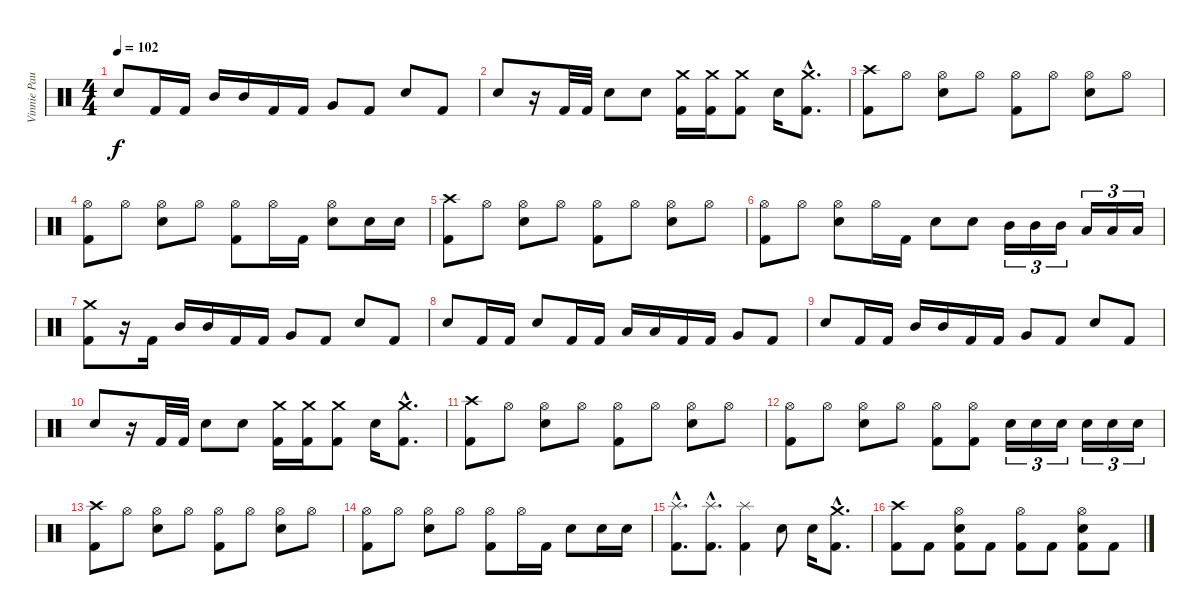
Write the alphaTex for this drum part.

\track ("Vinnie Paul" "Vinnie Pau") {instrument percussion}
\staff {score}
\articulation defaults
\ts (4 4)
\tempo 102
\clef neutral
\ks c "Snare (hit) 2".8{dy f} "Kick (hit) 2".16 "Kick (hit) 2".16 "Mid Tom (hit)".16 "Mid Tom (hit)".16 "Kick (hit) 2".16 "Kick (hit) 2".16 "Very Low Tom (hit)".8 "Kick (hit) 2".8 "Snare (hit) 2".8 "Kick (hit) 2".8
|
"Snare (hit) 2".8 r.16 "Kick (hit) 2".32 "Kick (hit) 2".32 "Snare (hit) 2".8 "Snare (hit) 2".8 ("Crash medium (hit)" "Kick (hit) 2").16 ("Crash medium (hit)" "Kick (hit) 2").16 ("Crash medium (hit)" "Kick (hit) 2").8 "Snare (hit) 2".16 ("Crash medium (hit)"{hac} "Kick (hit) 2"{hac}).8{d} |
("Crash high (hit)" "Kick (hit) 2").8 "Hi-Hat (open)".8 ("Hi-Hat (open)" "Snare (hit) 2").8 "Hi-Hat (open)".8 ("Hi-Hat (open)" "Kick (hit) 2").8 "Hi-Hat (open)".8 ("Hi-Hat (open)" "Snare (hit) 2").8 "Hi-Hat (open)".8 |
("Hi-Hat (open)" "Kick (hit) 2").8 "Hi-Hat (open)".8 ("Hi-Hat (open)" "Snare (hit) 2").8 "Hi-Hat (open)".8 ("Hi-Hat (open)" "Kick (hit) 2").8 "Hi-Hat (open)".16 "Kick (hit) 2".16 ("Hi-Hat (open)" "Snare (hit) 2").8 "Snare (hit) 2".16 "Snare (hit) 2".16 |
("Crash high (hit)" "Kick (hit) 2").8 "Hi-Hat (open)".8 ("Hi-Hat (open)" "Snare (hit) 2").8 "Hi-Hat (open)".8 ("Hi-Hat (open)" "Kick (hit) 2").8 "Hi-Hat (open)".8 ("Hi-Hat (open)" "Snare (hit) 2").8 "Hi-Hat (open)".8 |
("Hi-Hat (open)" "Kick (hit) 2").8 "Hi-Hat (open)".8 ("Hi-Hat (open)" "Snare (hit) 2").8 "Hi-Hat (open)".16 "Kick (hit) 2".16 "Snare (hit) 2".8 "Snare (hit) 2".8 "Mid Tom (hit)".16{tu (3 2)} "Mid Tom (hit)".16{tu (3 2)} "Mid Tom (hit)".16{tu (3 2)} "Low Tom (hit)".16{tu (3 2)} "Low Tom (hit)".16{tu (3 2)} "Low Tom (hit)".16{tu (3 2)} |
("Crash medium (hit)" "Kick (hit) 2").8 r.16 "Kick (hit) 2".16 "Mid Tom (hit)".16 "Mid Tom (hit)".16 "Kick (hit) 2".16 "Kick (hit) 2".16 "Very Low Tom (hit)".8 "Kick (hit) 2".8 "Snare (hit) 2".8 "Kick (hit) 2".8 |
"Snare (hit) 2".8 "Kick (hit) 2".16 "Kick (hit) 2".16 "Snare (hit) 2".8 "Kick (hit) 2".16 "Kick (hit) 2".16 "Low Tom (hit)".16 "Low Tom (hit)".16 "Kick (hit) 2".16 "Kick (hit) 2".16 "Very Low Tom (hit)".8 "Kick (hit) 2".8 |
"Snare (hit) 2".8 "Kick (hit) 2".16 "Kick (hit) 2".16 "Mid Tom (hit)".16 "Mid Tom (hit)".16 "Kick (hit) 2".16 "Kick (hit) 2".16 "Very Low Tom (hit)".8 "Kick (hit) 2".8 "Snare (hit) 2".8 "Kick (hit) 2".8 |
"Snare (hit) 2".8 r.16 "Kick (hit) 2".32 "Kick (hit) 2".32 "Snare (hit) 2".8 "Snare (hit) 2".8 ("Crash medium (hit)" "Kick (hit) 2").16 ("Crash medium (hit)" "Kick (hit) 2").16 ("Crash medium (hit)" "Kick (hit) 2").8 "Snare (hit) 2".16 ("Crash medium (hit)"{hac} "Kick (hit) 2"{hac}).8{d} |
("Crash high (hit)" "Kick (hit) 2").8 "Hi-Hat (open)".8 ("Hi-Hat (open)" "Snare (hit) 2").8 "Hi-Hat (open)".8 ("Hi-Hat (open)" "Kick (hit) 2").8 "Hi-Hat (open)".8 ("Hi-Hat (open)" "Snare (hit) 2").8 "Hi-Hat (open)".8 |
("Hi-Hat (open)" "Kick (hit) 2").8 "Hi-Hat (open)".8 ("Hi-Hat (open)" "Snare (hit) 2").8 "Hi-Hat (open)".8 ("Hi-Hat (open)" "Kick (hit) 2").8 ("Hi-Hat (open)" "Kick (hit) 2").8 "Snare (hit) 2".16{tu (3 2)} "Snare (hit) 2".16{tu (3 2)} "Snare (hit) 2".16{tu (3 2)} "Snare (hit) 2".16{tu (3 2)} "Snare (hit) 2".16{tu (3 2)} "Snare (hit) 2".16{tu (3 2)} |
("Crash high (hit)" "Kick (hit) 2").8 "Hi-Hat (open)".8 ("Hi-Hat (open)" "Snare (hit) 2").8 "Hi-Hat (open)".8 ("Hi-Hat (open)" "Kick (hit) 2").8 "Hi-Hat (open)".8 ("Hi-Hat (open)" "Snare (hit) 2").8 "Hi-Hat (open)".8 |
("Hi-Hat (open)" "Kick (hit) 2").8 "Hi-Hat (open)".8 ("Hi-Hat (open)" "Snare (hit) 2").8 "Hi-Hat (open)".8 ("Hi-Hat (open)" "Kick (hit) 2").8 "Hi-Hat (open)".16 "Kick (hit) 2".16 "Snare (hit) 2".8 "Snare (hit) 2".16 "Snare (hit) 2".16 |
("Splash (hit)"{hac} "Kick (hit) 2"{hac}).8{d} ("Splash (hit)"{hac} "Kick (hit) 2"{hac}).8{d} ("Splash (hit)" "Kick (hit) 2").4 "Snare (hit) 2".8 "Snare (hit) 2".16 ("Crash medium (hit)"{hac} "Kick (hit) 2"{hac}).8{d} |
("Crash high (hit)" "Kick (hit) 2").8 "Kick (hit) 2".8 ("Hi-Hat (open)" "Snare (hit) 2" "Kick (hit) 2").8 "Kick (hit) 2".8 ("Hi-Hat (open)" "Kick (hit) 2").8 "Kick (hit) 2".8 ("Hi-Hat (open)" "Snare (hit) 2" "Kick (hit) 2").8 "Kick (hit) 2".8
